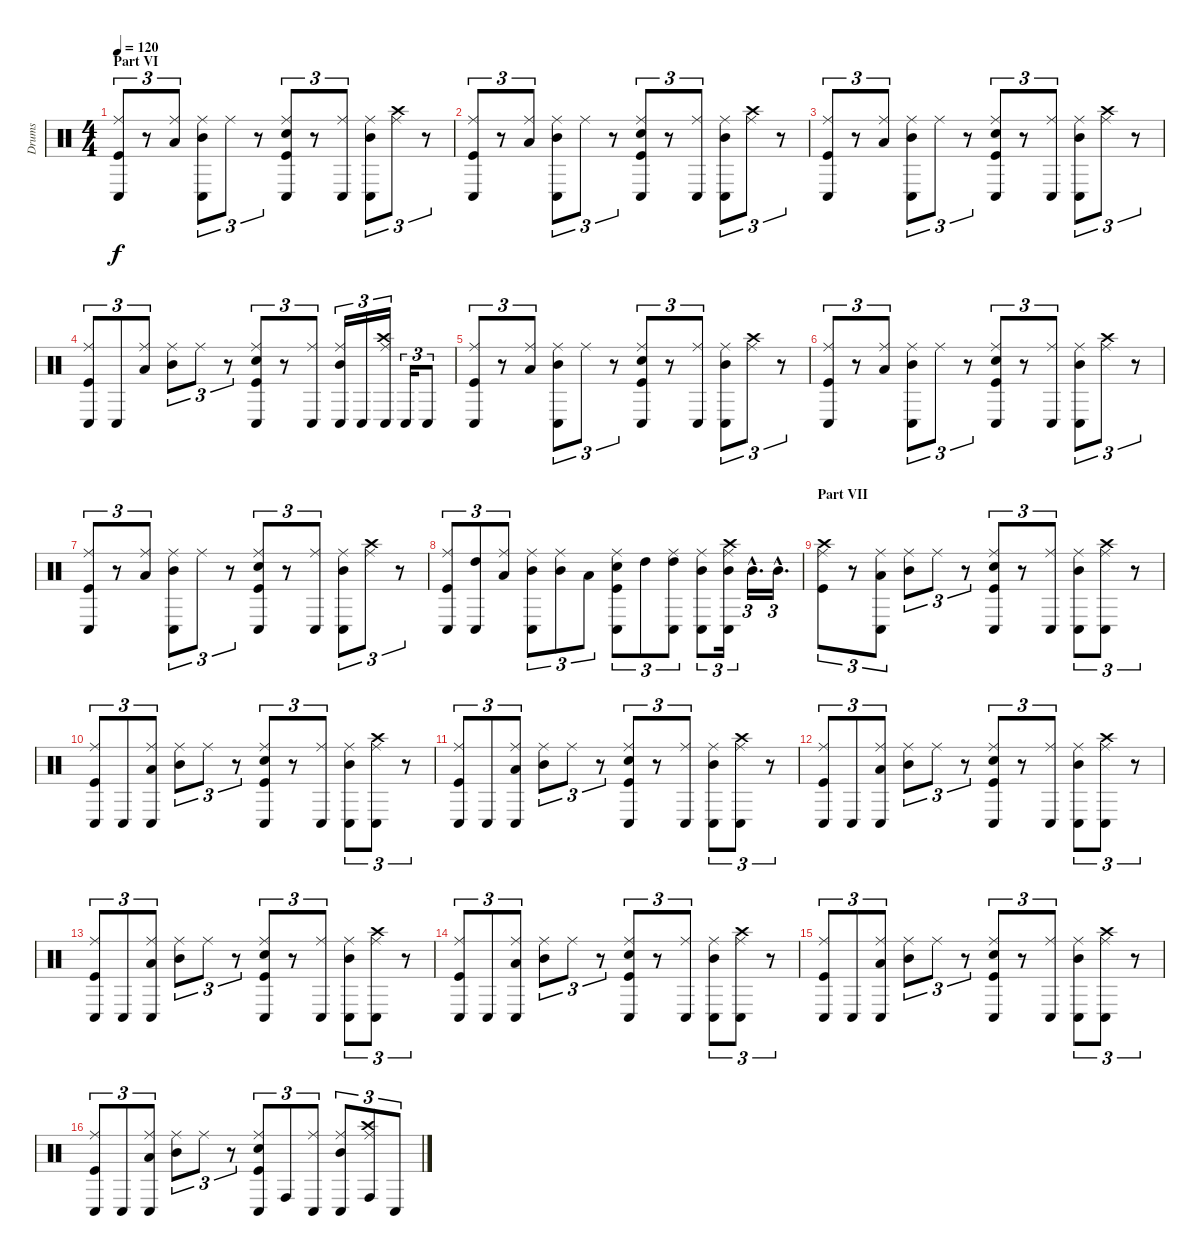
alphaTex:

\track ("Drums" "Drums") {instrument percussion}
\staff {score}
\articulation defaults
\ts (4 4)
\section ("" "Part VI")
\tempo 120
\clef neutral
\ks c
("Kick (hit)" "Ride (middle)" "Conga low (hit)").8{tu (3 2) dy f} r.8{tu (3 2)} ("Low Floor Tom (hit)" "Ride (middle)").8{tu (3 2)} ("Mid Tom (hit)" "Ride (middle)" "Conga low (hit)").8{tu (3 2)} "Ride (middle)".8{tu (3 2)} r.8{tu (3 2)} ("Kick (hit)" "Snare (hit) 2" "Ride (middle)" "Conga low (hit)").8{tu (3 2)} r.8{tu (3 2)} ("Ride (middle)" "Conga low (hit)").8{tu (3 2)} ("Mid Tom (hit)" "Ride (middle)" "Conga low (hit)").8{tu (3 2)} ("Ride (middle)" "Crash high (hit)").8{tu (3 2)} r.8{tu (3 2)} |
("Kick (hit)" "Ride (middle)" "Conga low (hit)").8{tu (3 2)} r.8{tu (3 2)} ("Low Floor Tom (hit)" "Ride (middle)").8{tu (3 2)} ("Mid Tom (hit)" "Ride (middle)" "Conga low (hit)").8{tu (3 2)} "Ride (middle)".8{tu (3 2)} r.8{tu (3 2)} ("Kick (hit)" "Snare (hit) 2" "Ride (middle)" "Conga low (hit)").8{tu (3 2)} r.8{tu (3 2)} ("Ride (middle)" "Conga low (hit)").8{tu (3 2)} ("Mid Tom (hit)" "Ride (middle)" "Conga low (hit)").8{tu (3 2)} ("Ride (middle)" "Crash high (hit)").8{tu (3 2)} r.8{tu (3 2)} |
("Kick (hit)" "Ride (middle)" "Conga low (hit)").8{tu (3 2)} r.8{tu (3 2)} ("Low Floor Tom (hit)" "Ride (middle)").8{tu (3 2)} ("Mid Tom (hit)" "Ride (middle)" "Conga low (hit)").8{tu (3 2)} "Ride (middle)".8{tu (3 2)} r.8{tu (3 2)} ("Kick (hit)" "Snare (hit) 2" "Ride (middle)" "Conga low (hit)").8{tu (3 2)} r.8{tu (3 2)} ("Ride (middle)" "Conga low (hit)").8{tu (3 2)} ("Mid Tom (hit)" "Ride (middle)" "Conga low (hit)").8{tu (3 2)} ("Ride (middle)" "Crash high (hit)").8{tu (3 2)} r.8{tu (3 2)} |
("Kick (hit)" "Ride (middle)" "Conga low (hit)").8{tu (3 2)} "Conga low (hit)".8{tu (3 2)} ("Low Floor Tom (hit)" "Ride (middle)").8{tu (3 2)} ("Mid Tom (hit)" "Ride (middle)").8{tu (3 2)} "Ride (middle)".8{tu (3 2)} r.8{tu (3 2)} ("Kick (hit)" "Snare (hit) 2" "Ride (middle)" "Conga low (hit)").8{tu (3 2)} r.8{tu (3 2)} ("Ride (middle)" "Conga low (hit)").8{tu (3 2)} ("Mid Tom (hit)" "Ride (middle)" "Conga low (hit)").16{tu (3 2)} "Conga low (hit)".16{tu (3 2)} ("Ride (middle)" "Crash high (hit)" "Conga low (hit)").16{tu (3 2)} "Conga low (hit)".16{tu (3 2)} "Conga low (hit)".8{tu (3 2)} |
("Kick (hit)" "Ride (middle)" "Conga low (hit)").8{tu (3 2)} r.8{tu (3 2)} ("Low Floor Tom (hit)" "Ride (middle)").8{tu (3 2)} ("Mid Tom (hit)" "Ride (middle)" "Conga low (hit)").8{tu (3 2)} "Ride (middle)".8{tu (3 2)} r.8{tu (3 2)} ("Kick (hit)" "Snare (hit) 2" "Ride (middle)" "Conga low (hit)").8{tu (3 2)} r.8{tu (3 2)} ("Ride (middle)" "Conga low (hit)").8{tu (3 2)} ("Mid Tom (hit)" "Ride (middle)" "Conga low (hit)").8{tu (3 2)} ("Ride (middle)" "Crash high (hit)").8{tu (3 2)} r.8{tu (3 2)} |
("Kick (hit)" "Ride (middle)" "Conga low (hit)").8{tu (3 2)} r.8{tu (3 2)} ("Low Floor Tom (hit)" "Ride (middle)").8{tu (3 2)} ("Mid Tom (hit)" "Ride (middle)" "Conga low (hit)").8{tu (3 2)} "Ride (middle)".8{tu (3 2)} r.8{tu (3 2)} ("Kick (hit)" "Snare (hit) 2" "Ride (middle)" "Conga low (hit)").8{tu (3 2)} r.8{tu (3 2)} ("Ride (middle)" "Conga low (hit)").8{tu (3 2)} ("Mid Tom (hit)" "Ride (middle)" "Conga low (hit)").8{tu (3 2)} ("Ride (middle)" "Crash high (hit)").8{tu (3 2)} r.8{tu (3 2)} |
("Kick (hit)" "Ride (middle)" "Conga low (hit)").8{tu (3 2)} r.8{tu (3 2)} ("Low Floor Tom (hit)" "Ride (middle)").8{tu (3 2)} ("Mid Tom (hit)" "Ride (middle)" "Conga low (hit)").8{tu (3 2)} "Ride (middle)".8{tu (3 2)} r.8{tu (3 2)} ("Kick (hit)" "Snare (hit) 2" "Ride (middle)" "Conga low (hit)").8{tu (3 2)} r.8{tu (3 2)} ("Ride (middle)" "Conga low (hit)").8{tu (3 2)} ("Mid Tom (hit)" "Ride (middle)" "Conga low (hit)").8{tu (3 2)} ("Ride (middle)" "Crash high (hit)").8{tu (3 2)} r.8{tu (3 2)} |
("Kick (hit)" "Ride (middle)" "Conga low (hit)").8{tu (3 2)} ("High Tom (hit)" "Conga low (hit)").8{tu (3 2)} ("Low Floor Tom (hit)" "Ride (middle)").8{tu (3 2)} ("Mid Tom (hit)" "Ride (middle)" "Conga low (hit)").8{tu (3 2)} ("Mid Tom (hit)" "Ride (middle)").8{tu (3 2)} "Low Tom (hit)".8{tu (3 2)} ("Kick (hit)" "Snare (hit) 2" "Ride (middle)" "Conga low (hit)").8{tu (3 2)} "High Tom (hit)".8{tu (3 2)} ("High Tom (hit)" "Ride (middle)" "Conga low (hit)").8{tu (3 2)} ("Mid Tom (hit)" "Ride (middle)" "Conga low (hit)").8{tu (3 2)} ("Mid Tom (hit)" "Ride (middle)" "Crash high (hit)" "Conga low (hit)").16{tu (3 2)} "Mid Tom (hit)"{hac}.16{d tu (3 2)} "Mid Tom (hit)"{hac}.16{d tu (3 2)} |
\section ("" "Part VII")
("Kick (hit)" "Ride (middle)" "Crash high (hit)").8{tu (3 2)} r.8{tu (3 2)} ("Low Floor Tom (hit)" "Ride (middle)" "Conga low (hit)").8{tu (3 2)} ("Mid Tom (hit)" "Ride (middle)").8{tu (3 2)} "Ride (middle)".8{tu (3 2)} r.8{tu (3 2)} ("Kick (hit)" "Snare (hit) 2" "Ride (middle)" "Conga low (hit)").8{tu (3 2)} r.8{tu (3 2)} ("Ride (middle)" "Conga low (hit)").8{tu (3 2)} ("Mid Tom (hit)" "Ride (middle)" "Conga low (hit)").8{tu (3 2)} ("Ride (middle)" "Crash high (hit)" "Conga low (hit)").8{tu (3 2)} r.8{tu (3 2)} |
("Kick (hit)" "Ride (middle)" "Conga low (hit)").8{tu (3 2)} "Conga low (hit)".8{tu (3 2)} ("Low Floor Tom (hit)" "Ride (middle)" "Conga low (hit)").8{tu (3 2)} ("Mid Tom (hit)" "Ride (middle)").8{tu (3 2)} "Ride (middle)".8{tu (3 2)} r.8{tu (3 2)} ("Kick (hit)" "Snare (hit) 2" "Ride (middle)" "Conga low (hit)").8{tu (3 2)} r.8{tu (3 2)} ("Ride (middle)" "Conga low (hit)").8{tu (3 2)} ("Mid Tom (hit)" "Ride (middle)" "Conga low (hit)").8{tu (3 2)} ("Ride (middle)" "Crash high (hit)" "Conga low (hit)").8{tu (3 2)} r.8{tu (3 2)} |
("Kick (hit)" "Ride (middle)" "Conga low (hit)").8{tu (3 2)} "Conga low (hit)".8{tu (3 2)} ("Low Floor Tom (hit)" "Ride (middle)" "Conga low (hit)").8{tu (3 2)} ("Mid Tom (hit)" "Ride (middle)").8{tu (3 2)} "Ride (middle)".8{tu (3 2)} r.8{tu (3 2)} ("Kick (hit)" "Snare (hit) 2" "Ride (middle)" "Conga low (hit)").8{tu (3 2)} r.8{tu (3 2)} ("Ride (middle)" "Conga low (hit)").8{tu (3 2)} ("Mid Tom (hit)" "Ride (middle)" "Conga low (hit)").8{tu (3 2)} ("Ride (middle)" "Crash high (hit)" "Conga low (hit)").8{tu (3 2)} r.8{tu (3 2)} |
("Kick (hit)" "Ride (middle)" "Conga low (hit)").8{tu (3 2)} "Conga low (hit)".8{tu (3 2)} ("Low Floor Tom (hit)" "Ride (middle)" "Conga low (hit)").8{tu (3 2)} ("Mid Tom (hit)" "Ride (middle)").8{tu (3 2)} "Ride (middle)".8{tu (3 2)} r.8{tu (3 2)} ("Kick (hit)" "Snare (hit) 2" "Ride (middle)" "Conga low (hit)").8{tu (3 2)} r.8{tu (3 2)} ("Ride (middle)" "Conga low (hit)").8{tu (3 2)} ("Mid Tom (hit)" "Ride (middle)" "Conga low (hit)").8{tu (3 2)} ("Ride (middle)" "Crash high (hit)" "Conga low (hit)").8{tu (3 2)} r.8{tu (3 2)} |
("Kick (hit)" "Ride (middle)" "Conga low (hit)").8{tu (3 2)} "Conga low (hit)".8{tu (3 2)} ("Low Floor Tom (hit)" "Ride (middle)" "Conga low (hit)").8{tu (3 2)} ("Mid Tom (hit)" "Ride (middle)").8{tu (3 2)} "Ride (middle)".8{tu (3 2)} r.8{tu (3 2)} ("Kick (hit)" "Snare (hit) 2" "Ride (middle)" "Conga low (hit)").8{tu (3 2)} r.8{tu (3 2)} ("Ride (middle)" "Conga low (hit)").8{tu (3 2)} ("Mid Tom (hit)" "Ride (middle)" "Conga low (hit)").8{tu (3 2)} ("Ride (middle)" "Crash high (hit)" "Conga low (hit)").8{tu (3 2)} r.8{tu (3 2)} |
("Kick (hit)" "Ride (middle)" "Conga low (hit)").8{tu (3 2)} "Conga low (hit)".8{tu (3 2)} ("Low Floor Tom (hit)" "Ride (middle)" "Conga low (hit)").8{tu (3 2)} ("Mid Tom (hit)" "Ride (middle)").8{tu (3 2)} "Ride (middle)".8{tu (3 2)} r.8{tu (3 2)} ("Kick (hit)" "Snare (hit) 2" "Ride (middle)" "Conga low (hit)").8{tu (3 2)} r.8{tu (3 2)} ("Ride (middle)" "Conga low (hit)").8{tu (3 2)} ("Mid Tom (hit)" "Ride (middle)" "Conga low (hit)").8{tu (3 2)} ("Ride (middle)" "Crash high (hit)" "Conga low (hit)").8{tu (3 2)} r.8{tu (3 2)} |
("Kick (hit)" "Ride (middle)" "Conga low (hit)").8{tu (3 2)} "Conga low (hit)".8{tu (3 2)} ("Low Floor Tom (hit)" "Ride (middle)" "Conga low (hit)").8{tu (3 2)} ("Mid Tom (hit)" "Ride (middle)").8{tu (3 2)} "Ride (middle)".8{tu (3 2)} r.8{tu (3 2)} ("Kick (hit)" "Snare (hit) 2" "Ride (middle)" "Conga low (hit)").8{tu (3 2)} r.8{tu (3 2)} ("Ride (middle)" "Conga low (hit)").8{tu (3 2)} ("Mid Tom (hit)" "Ride (middle)" "Conga low (hit)").8{tu (3 2)} ("Ride (middle)" "Crash high (hit)" "Conga low (hit)").8{tu (3 2)} r.8{tu (3 2)} |
("Kick (hit)" "Ride (middle)" "Conga low (hit)").8{tu (3 2)} "Conga low (hit)".8{tu (3 2)} ("Low Floor Tom (hit)" "Ride (middle)" "Conga low (hit)").8{tu (3 2)} ("Mid Tom (hit)" "Ride (middle)").8{tu (3 2)} "Ride (middle)".8{tu (3 2)} r.8{tu (3 2)} ("Kick (hit)" "Snare (hit) 2" "Ride (middle)" "Conga low (hit)").8{tu (3 2)} "Conga high (hit)".8{tu (3 2)} ("Ride (middle)" "Conga low (hit)").8{tu (3 2)} ("Mid Tom (hit)" "Ride (middle)" "Conga low (hit)").8{tu (3 2)} ("Ride (middle)" "Crash high (hit)" "Conga high (hit)").8{tu (3 2)} "Conga low (hit)".8{tu (3 2)}
